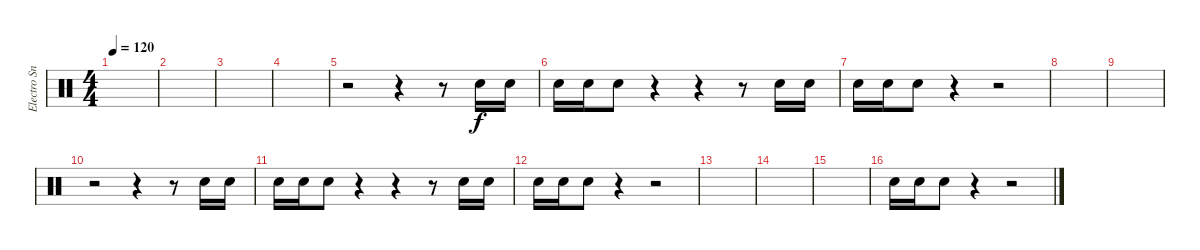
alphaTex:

\track ("Electro Snare" "Electro Sn") {instrument percussion}
\staff {score}
\articulation defaults
\ts (4 4)
\tempo 120
\clef neutral
\ks c
|
|
|
|
r.2 r.4 r.8 "Electric Snare (hit)".16 "Electric Snare (hit)".16 |
"Electric Snare (hit)".16 "Electric Snare (hit)".16 "Electric Snare (hit)".8 r.4 r.4 r.8 "Electric Snare (hit)".16 "Electric Snare (hit)".16 |
"Electric Snare (hit)".16 "Electric Snare (hit)".16 "Electric Snare (hit)".8 r.4 r.2 |
|
|
r.2 r.4 r.8 "Electric Snare (hit)".16 "Electric Snare (hit)".16 |
"Electric Snare (hit)".16 "Electric Snare (hit)".16 "Electric Snare (hit)".8 r.4 r.4 r.8 "Electric Snare (hit)".16 "Electric Snare (hit)".16 |
"Electric Snare (hit)".16 "Electric Snare (hit)".16 "Electric Snare (hit)".8 r.4 r.2 |
|
|
|
"Electric Snare (hit)".16 "Electric Snare (hit)".16 "Electric Snare (hit)".8 r.4 r.2
